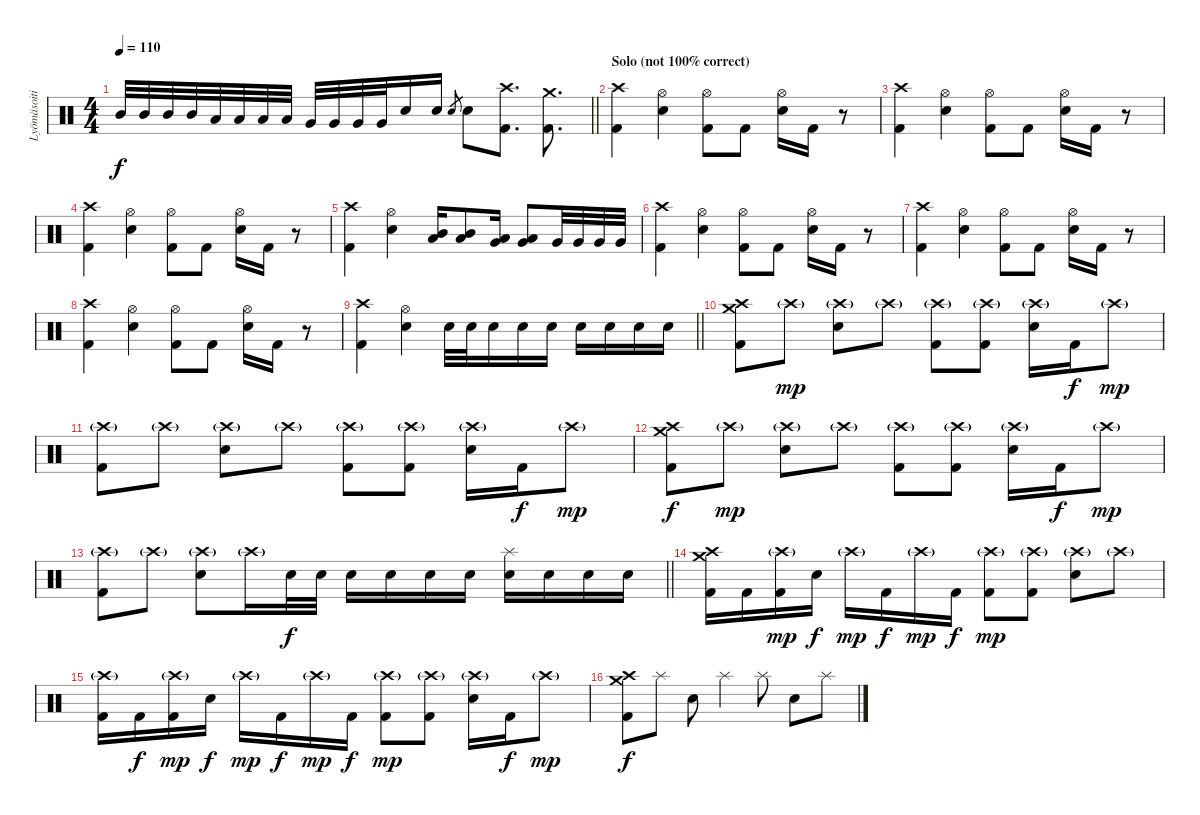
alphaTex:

\track ("Lyömäsoitin" "Lyömäsoiti") {instrument percussion}
\staff {score}
\articulation defaults
\ts (4 4)
\tempo 110
\clef neutral
\barLineRight lightlight
\ks c "Mid Tom (hit)".32{dy f} "Mid Tom (hit)".32 "Mid Tom (hit)".32 "Mid Tom (hit)".32 "Low Tom (hit)".32 "Low Tom (hit)".32 "Low Tom (hit)".32 "Low Tom (hit)".32 "Very Low Tom (hit)".32 "Very Low Tom (hit)".32 "Very Low Tom (hit)".32 "Very Low Tom (hit)".32 "Electric Snare (hit)".16 "Electric Snare (hit)".16 "Electric Snare (hit)".8{gr} "Electric Snare (hit)".8
("Crash high (hit)" "Kick (hit) 2").8{d} ("Crash medium (hit)" "Kick (hit) 2").8{d} |
\section ("" "Solo (not 100% correct)")
("Crash high (hit)" "Kick (hit) 2").4 ("Hi-Hat (open)" "Electric Snare (hit)").4 ("Hi-Hat (open)" "Kick (hit) 2").8 "Kick (hit) 2".8 ("Hi-Hat (open)" "Electric Snare (hit)").16 "Kick (hit) 2".16 r.8 |
("Crash high (hit)" "Kick (hit) 2").4 ("Hi-Hat (open)" "Electric Snare (hit)").4 ("Hi-Hat (open)" "Kick (hit) 2").8 "Kick (hit) 2".8 ("Hi-Hat (open)" "Electric Snare (hit)").16 "Kick (hit) 2".16 r.8 |
("Crash high (hit)" "Kick (hit) 2").4 ("Hi-Hat (open)" "Electric Snare (hit)").4 ("Hi-Hat (open)" "Kick (hit) 2").8 "Kick (hit) 2".8 ("Hi-Hat (open)" "Electric Snare (hit)").16 "Kick (hit) 2".16 r.8 |
("Crash high (hit)" "Kick (hit) 2").4 ("Hi-Hat (open)" "Electric Snare (hit)").4 ("Mid Tom (hit)" "Low Tom (hit)").16 ("Mid Tom (hit)" "Low Tom (hit)").8 ("Low Tom (hit)" "Very Low Tom (hit)").16 ("Low Tom (hit)" "Very Low Tom (hit)").8 "Very Low Tom (hit)".32 "Very Low Tom (hit)".32 "Very Low Tom (hit)".32 "Very Low Tom (hit)".32 |
("Crash high (hit)" "Kick (hit) 2").4 ("Hi-Hat (open)" "Electric Snare (hit)").4 ("Hi-Hat (open)" "Kick (hit) 2").8 "Kick (hit) 2".8 ("Hi-Hat (open)" "Electric Snare (hit)").16 "Kick (hit) 2".16 r.8 |
("Crash high (hit)" "Kick (hit) 2").4 ("Hi-Hat (open)" "Electric Snare (hit)").4 ("Hi-Hat (open)" "Kick (hit) 2").8 "Kick (hit) 2".8 ("Hi-Hat (open)" "Electric Snare (hit)").16 "Kick (hit) 2".16 r.8 |
("Crash high (hit)" "Kick (hit) 2").4 ("Hi-Hat (open)" "Electric Snare (hit)").4 ("Hi-Hat (open)" "Kick (hit) 2").8 "Kick (hit) 2".8 ("Hi-Hat (open)" "Electric Snare (hit)").16 "Kick (hit) 2".16 r.8 |
\barLineRight lightlight
("Crash high (hit)" "Kick (hit) 2").4 ("Hi-Hat (open)" "Electric Snare (hit)").4 "Electric Snare (hit)".32 "Electric Snare (hit)".32 "Electric Snare (hit)".16 "Electric Snare (hit)".16 "Electric Snare (hit)".16 "Electric Snare (hit)".16 "Electric Snare (hit)".16 "Electric Snare (hit)".16 "Electric Snare (hit)".16 |
\section ("" "")
("Crash medium (hit)" "Crash high (hit)" "Kick (hit) 2").8 "Crash high (hit)"{g}.8{dy mp} ("Crash high (hit)"{g} "Electric Snare (hit)").8 "Crash high (hit)"{g}.8 ("Crash high (hit)"{g} "Kick (hit) 2").8 ("Crash high (hit)"{g} "Kick (hit) 2").8 ("Crash high (hit)"{g} "Electric Snare (hit)").16 "Kick (hit) 2".16{dy f} "Crash high (hit)"{g}.8{dy mp} |
("Crash high (hit)"{g} "Kick (hit) 2").8 "Crash high (hit)"{g}.8 ("Crash high (hit)"{g} "Electric Snare (hit)").8 "Crash high (hit)"{g}.8 ("Crash high (hit)"{g} "Kick (hit) 2").8 ("Crash high (hit)"{g} "Kick (hit) 2").8 ("Crash high (hit)"{g} "Electric Snare (hit)").16 "Kick (hit) 2".16{dy f} "Crash high (hit)"{g}.8{dy mp} |
("Crash medium (hit)" "Crash high (hit)" "Kick (hit) 2").8{dy f} "Crash high (hit)"{g}.8{dy mp} ("Crash high (hit)"{g} "Electric Snare (hit)").8 "Crash high (hit)"{g}.8 ("Crash high (hit)"{g} "Kick (hit) 2").8 ("Crash high (hit)"{g} "Kick (hit) 2").8 ("Crash high (hit)"{g} "Electric Snare (hit)").16 "Kick (hit) 2".16{dy f} "Crash high (hit)"{g}.8{dy mp} |
\barLineRight lightlight
("Crash high (hit)"{g} "Kick (hit) 2").8 "Crash high (hit)"{g}.8 ("Crash high (hit)"{g} "Electric Snare (hit)").8 "Crash high (hit)"{g}.16 "Electric Snare (hit)".32{dy f} "Electric Snare (hit)".32 "Electric Snare (hit)".16 "Electric Snare (hit)".16 "Electric Snare (hit)".16 "Electric Snare (hit)".16 ("Splash (hit)" "Electric Snare (hit)").16 "Electric Snare (hit)".16 "Electric Snare (hit)".16 "Electric Snare (hit)".16 |
\section ("" "")
("Crash medium (hit)" "Crash high (hit)" "Kick (hit) 2").16 "Kick (hit) 2".16 ("Crash high (hit)"{g} "Kick (hit) 2").16{dy mp} "Electric Snare (hit)".16{dy f} "Crash high (hit)"{g}.16{dy mp} "Kick (hit) 2".16{dy f} "Crash high (hit)"{g}.16{dy mp} "Kick (hit) 2".16{dy f} ("Crash high (hit)"{g} "Kick (hit) 2").8{dy mp} ("Crash high (hit)"{g} "Kick (hit) 2").8 ("Crash high (hit)"{g} "Electric Snare (hit)").8 "Crash high (hit)"{g}.8 |
("Crash high (hit)"{g} "Kick (hit) 2").16 "Kick (hit) 2".16{dy f} ("Crash high (hit)"{g} "Kick (hit) 2").16{dy mp} "Electric Snare (hit)".16{dy f} "Crash high (hit)"{g}.16{dy mp} "Kick (hit) 2".16{dy f} "Crash high (hit)"{g}.16{dy mp} "Kick (hit) 2".16{dy f} ("Crash high (hit)"{g} "Kick (hit) 2").8{dy mp} ("Crash high (hit)"{g} "Kick (hit) 2").8 ("Crash high (hit)"{g} "Electric Snare (hit)").16 "Kick (hit) 2".16{dy f} "Crash high (hit)"{g}.8{dy mp} |
("Crash medium (hit)" "Crash high (hit)" "Kick (hit) 2").8{dy f} "Splash (hit)".8 "Electric Snare (hit)".8 "Splash (hit)".4 "Splash (hit)".8 "Electric Snare (hit)".8 "Splash (hit)".8
